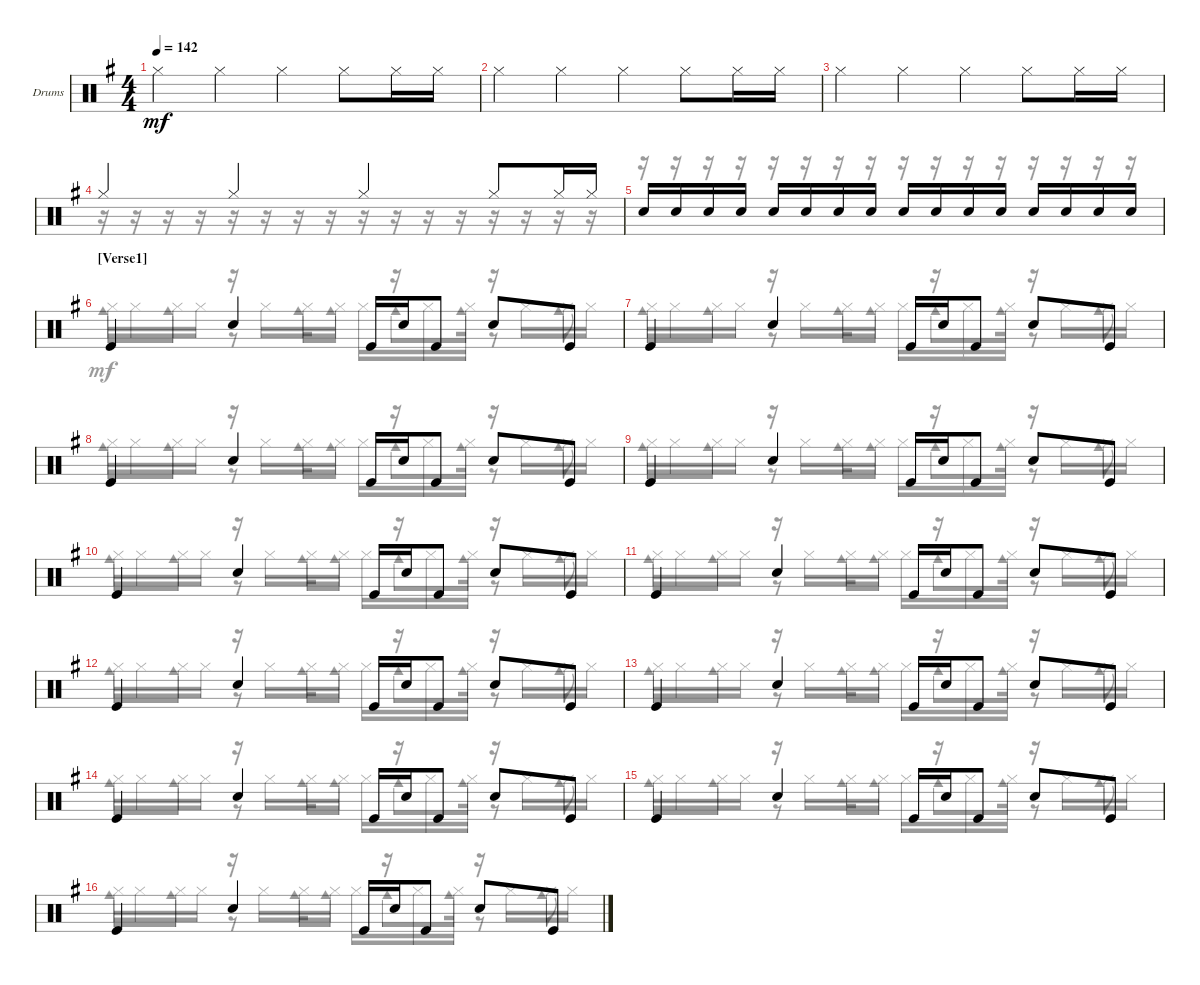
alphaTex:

\bracketExtendMode groupsimilarinstruments
\firstSystemTrackNameOrientation horizontal
\otherSystemsTrackNameOrientation horizontal
\track ("Drumkit" "Drums") {instrument percussion}
\staff {score}
\articulation defaults
\voice
\ts (4 4)
\tempo 142
\clef neutral
\ks eminor "Hi-Hat (closed)".4{dy mf} "Hi-Hat (closed)".4 "Hi-Hat (closed)".4 "Hi-Hat (closed)".8 "Hi-Hat (closed)".16 "Hi-Hat (closed)".16
|
"Hi-Hat (closed)".4 "Hi-Hat (closed)".4 "Hi-Hat (closed)".4 "Hi-Hat (closed)".8 "Hi-Hat (closed)".16 "Hi-Hat (closed)".16 |
"Hi-Hat (closed)".4 "Hi-Hat (closed)".4 "Hi-Hat (closed)".4 "Hi-Hat (closed)".8 "Hi-Hat (closed)".16 "Hi-Hat (closed)".16 |
"Hi-Hat (closed)".4 "Hi-Hat (closed)".4 "Hi-Hat (closed)".4 "Hi-Hat (closed)".8 "Hi-Hat (closed)".16 "Hi-Hat (closed)".16 |
"Snare (hit) 2".16 "Snare (hit) 2".16 "Snare (hit) 2".16 "Snare (hit) 2".16 "Snare (hit) 2".16 "Snare (hit) 2".16 "Snare (hit) 2".16 "Snare (hit) 2".16 "Snare (hit) 2".16 "Snare (hit) 2".16 "Snare (hit) 2".16 "Snare (hit) 2".16 "Snare (hit) 2".16 "Snare (hit) 2".16 "Snare (hit) 2".16 "Snare (hit) 2".16 |
\section ("" "[Verse1] ")
"Kick (hit)".4 "Snare (hit) 2".4 "Kick (hit)".16 "Snare (hit) 2".16 "Kick (hit)".8 "Snare (hit) 2".8 "Kick (hit)".8 |
"Kick (hit)".4 "Snare (hit) 2".4 "Kick (hit)".16 "Snare (hit) 2".16 "Kick (hit)".8 "Snare (hit) 2".8 "Kick (hit)".8 |
"Kick (hit)".4 "Snare (hit) 2".4 "Kick (hit)".16 "Snare (hit) 2".16 "Kick (hit)".8 "Snare (hit) 2".8 "Kick (hit)".8 |
"Kick (hit)".4 "Snare (hit) 2".4 "Kick (hit)".16 "Snare (hit) 2".16 "Kick (hit)".8 "Snare (hit) 2".8 "Kick (hit)".8 |
"Kick (hit)".4 "Snare (hit) 2".4 "Kick (hit)".16 "Snare (hit) 2".16 "Kick (hit)".8 "Snare (hit) 2".8 "Kick (hit)".8 |
"Kick (hit)".4 "Snare (hit) 2".4 "Kick (hit)".16 "Snare (hit) 2".16 "Kick (hit)".8 "Snare (hit) 2".8 "Kick (hit)".8 |
"Kick (hit)".4 "Snare (hit) 2".4 "Kick (hit)".16 "Snare (hit) 2".16 "Kick (hit)".8 "Snare (hit) 2".8 "Kick (hit)".8 |
"Kick (hit)".4 "Snare (hit) 2".4 "Kick (hit)".16 "Snare (hit) 2".16 "Kick (hit)".8 "Snare (hit) 2".8 "Kick (hit)".8 |
"Kick (hit)".4 "Snare (hit) 2".4 "Kick (hit)".16 "Snare (hit) 2".16 "Kick (hit)".8 "Snare (hit) 2".8 "Kick (hit)".8 |
"Kick (hit)".4 "Snare (hit) 2".4 "Kick (hit)".16 "Snare (hit) 2".16 "Kick (hit)".8 "Snare (hit) 2".8 "Kick (hit)".8 |
"Kick (hit)".4 "Snare (hit) 2".4 "Kick (hit)".16 "Snare (hit) 2".16 "Kick (hit)".8 "Snare (hit) 2".8 "Kick (hit)".8
\voice
\clef neutral
\ottava regular
\simile none
\ks eminor
|
|
|
r.16 r.16 r.16 r.16 r.16 r.16 r.16 r.16 r.16 r.16 r.16 r.16 r.16 r.16 r.16 r.16 |
r.16 r.16 r.16 r.16 r.16 r.16 r.16 r.16 r.16 r.16 r.16 r.16 r.16 r.16 r.16 r.16 |
"Hi-Hat (closed)".16 "Hi-Hat (closed)".16 "Hi-Hat (closed)".16 "Hi-Hat (closed)".16 r.16 "Hi-Hat (closed)".16 "Hi-Hat (closed)".16 "Hi-Hat (closed)".16 "Hi-Hat (closed)".16 r.16 "Hi-Hat (closed)".16 "Hi-Hat (closed)".16 r.16 "Hi-Hat (closed)".16 "Hi-Hat (closed)".16 "Hi-Hat (closed)".16 |
"Hi-Hat (closed)".16 "Hi-Hat (closed)".16 "Hi-Hat (closed)".16 "Hi-Hat (closed)".16 r.16 "Hi-Hat (closed)".16 "Hi-Hat (closed)".16 "Hi-Hat (closed)".16 "Hi-Hat (closed)".16 r.16 "Hi-Hat (closed)".16 "Hi-Hat (closed)".16 r.16 "Hi-Hat (closed)".16 "Hi-Hat (closed)".16 "Hi-Hat (closed)".16 |
"Hi-Hat (closed)".16 "Hi-Hat (closed)".16 "Hi-Hat (closed)".16 "Hi-Hat (closed)".16 r.16 "Hi-Hat (closed)".16 "Hi-Hat (closed)".16 "Hi-Hat (closed)".16 "Hi-Hat (closed)".16 r.16 "Hi-Hat (closed)".16 "Hi-Hat (closed)".16 r.16 "Hi-Hat (closed)".16 "Hi-Hat (closed)".16 "Hi-Hat (closed)".16 |
"Hi-Hat (closed)".16 "Hi-Hat (closed)".16 "Hi-Hat (closed)".16 "Hi-Hat (closed)".16 r.16 "Hi-Hat (closed)".16 "Hi-Hat (closed)".16 "Hi-Hat (closed)".16 "Hi-Hat (closed)".16 r.16 "Hi-Hat (closed)".16 "Hi-Hat (closed)".16 r.16 "Hi-Hat (closed)".16 "Hi-Hat (closed)".16 "Hi-Hat (closed)".16 |
"Hi-Hat (closed)".16 "Hi-Hat (closed)".16 "Hi-Hat (closed)".16 "Hi-Hat (closed)".16 r.16 "Hi-Hat (closed)".16 "Hi-Hat (closed)".16 "Hi-Hat (closed)".16 "Hi-Hat (closed)".16 r.16 "Hi-Hat (closed)".16 "Hi-Hat (closed)".16 r.16 "Hi-Hat (closed)".16 "Hi-Hat (closed)".16 "Hi-Hat (closed)".16 |
"Hi-Hat (closed)".16 "Hi-Hat (closed)".16 "Hi-Hat (closed)".16 "Hi-Hat (closed)".16 r.16 "Hi-Hat (closed)".16 "Hi-Hat (closed)".16 "Hi-Hat (closed)".16 "Hi-Hat (closed)".16 r.16 "Hi-Hat (closed)".16 "Hi-Hat (closed)".16 r.16 "Hi-Hat (closed)".16 "Hi-Hat (closed)".16 "Hi-Hat (closed)".16 |
"Hi-Hat (closed)".16 "Hi-Hat (closed)".16 "Hi-Hat (closed)".16 "Hi-Hat (closed)".16 r.16 "Hi-Hat (closed)".16 "Hi-Hat (closed)".16 "Hi-Hat (closed)".16 "Hi-Hat (closed)".16 r.16 "Hi-Hat (closed)".16 "Hi-Hat (closed)".16 r.16 "Hi-Hat (closed)".16 "Hi-Hat (closed)".16 "Hi-Hat (closed)".16 |
"Hi-Hat (closed)".16 "Hi-Hat (closed)".16 "Hi-Hat (closed)".16 "Hi-Hat (closed)".16 r.16 "Hi-Hat (closed)".16 "Hi-Hat (closed)".16 "Hi-Hat (closed)".16 "Hi-Hat (closed)".16 r.16 "Hi-Hat (closed)".16 "Hi-Hat (closed)".16 r.16 "Hi-Hat (closed)".16 "Hi-Hat (closed)".16 "Hi-Hat (closed)".16 |
"Hi-Hat (closed)".16 "Hi-Hat (closed)".16 "Hi-Hat (closed)".16 "Hi-Hat (closed)".16 r.16 "Hi-Hat (closed)".16 "Hi-Hat (closed)".16 "Hi-Hat (closed)".16 "Hi-Hat (closed)".16 r.16 "Hi-Hat (closed)".16 "Hi-Hat (closed)".16 r.16 "Hi-Hat (closed)".16 "Hi-Hat (closed)".16 "Hi-Hat (closed)".16 |
"Hi-Hat (closed)".16 "Hi-Hat (closed)".16 "Hi-Hat (closed)".16 "Hi-Hat (closed)".16 r.16 "Hi-Hat (closed)".16 "Hi-Hat (closed)".16 "Hi-Hat (closed)".16 "Hi-Hat (closed)".16 r.16 "Hi-Hat (closed)".16 "Hi-Hat (closed)".16 r.16 "Hi-Hat (closed)".16 "Hi-Hat (closed)".16 "Hi-Hat (closed)".16 |
"Hi-Hat (closed)".16 "Hi-Hat (closed)".16 "Hi-Hat (closed)".16 "Hi-Hat (closed)".16 r.16 "Hi-Hat (closed)".16 "Hi-Hat (closed)".16 "Hi-Hat (closed)".16 "Hi-Hat (closed)".16 r.16 "Hi-Hat (closed)".16 "Hi-Hat (closed)".16 r.16 "Hi-Hat (closed)".16 "Hi-Hat (closed)".16 "Hi-Hat (closed)".16
\voice
\clef neutral
\ottava regular
\simile none
\ks eminor
|
|
|
|
|
"Cowbell medium (hit)".8 "Cowbell medium (hit)".8 r.8 "Cowbell medium (hit)".16 "Cowbell medium (hit)".8 "Cowbell medium (hit)".8 "Cowbell medium (hit)".16 r.8 "Cowbell medium (hit)".8 |
"Cowbell medium (hit)".8 "Cowbell medium (hit)".8 r.8 "Cowbell medium (hit)".16 "Cowbell medium (hit)".8 "Cowbell medium (hit)".8 "Cowbell medium (hit)".16 r.8 "Cowbell medium (hit)".8 |
"Cowbell medium (hit)".8 "Cowbell medium (hit)".8 r.8 "Cowbell medium (hit)".16 "Cowbell medium (hit)".8 "Cowbell medium (hit)".8 "Cowbell medium (hit)".16 r.8 "Cowbell medium (hit)".8 |
"Cowbell medium (hit)".8 "Cowbell medium (hit)".8 r.8 "Cowbell medium (hit)".16 "Cowbell medium (hit)".8 "Cowbell medium (hit)".8 "Cowbell medium (hit)".16 r.8 "Cowbell medium (hit)".8 |
"Cowbell medium (hit)".8 "Cowbell medium (hit)".8 r.8 "Cowbell medium (hit)".16 "Cowbell medium (hit)".8 "Cowbell medium (hit)".8 "Cowbell medium (hit)".16 r.8 "Cowbell medium (hit)".8 |
"Cowbell medium (hit)".8 "Cowbell medium (hit)".8 r.8 "Cowbell medium (hit)".16 "Cowbell medium (hit)".8 "Cowbell medium (hit)".8 "Cowbell medium (hit)".16 r.8 "Cowbell medium (hit)".8 |
"Cowbell medium (hit)".8 "Cowbell medium (hit)".8 r.8 "Cowbell medium (hit)".16 "Cowbell medium (hit)".8 "Cowbell medium (hit)".8 "Cowbell medium (hit)".16 r.8 "Cowbell medium (hit)".8 |
"Cowbell medium (hit)".8 "Cowbell medium (hit)".8 r.8 "Cowbell medium (hit)".16 "Cowbell medium (hit)".8 "Cowbell medium (hit)".8 "Cowbell medium (hit)".16 r.8 "Cowbell medium (hit)".8 |
"Cowbell medium (hit)".8 "Cowbell medium (hit)".8 r.8 "Cowbell medium (hit)".16 "Cowbell medium (hit)".8 "Cowbell medium (hit)".8 "Cowbell medium (hit)".16 r.8 "Cowbell medium (hit)".8 |
"Cowbell medium (hit)".8 "Cowbell medium (hit)".8 r.8 "Cowbell medium (hit)".16 "Cowbell medium (hit)".8 "Cowbell medium (hit)".8 "Cowbell medium (hit)".16 r.8 "Cowbell medium (hit)".8 |
"Cowbell medium (hit)".8 "Cowbell medium (hit)".8 r.8 "Cowbell medium (hit)".16 "Cowbell medium (hit)".8 "Cowbell medium (hit)".8 "Cowbell medium (hit)".16 r.8 "Cowbell medium (hit)".8
